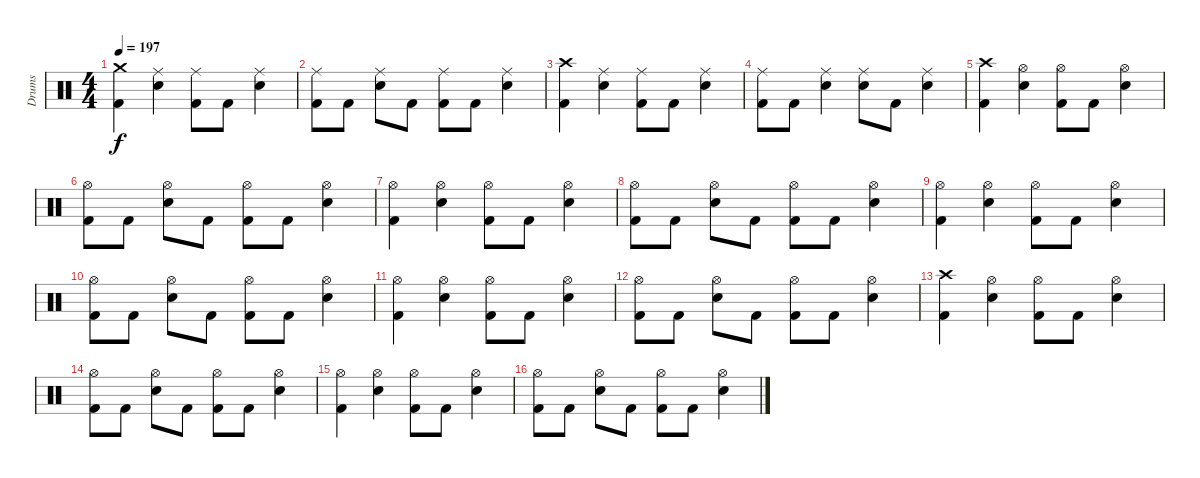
\track ("Drums" "Drums") {instrument percussion}
\staff {score}
\articulation defaults
\ts (4 4)
\tempo 197
\clef neutral
\ks c
("Crash medium (hit)" "Kick (hit) 2").4{dy f} ("Ride (middle)" "Electric Snare (hit)").4 ("Ride (middle)" "Kick (hit) 2").8 "Kick (hit) 2".8 ("Ride (middle)" "Electric Snare (hit)").4 |
("Ride (middle)" "Kick (hit) 2").8 "Kick (hit) 2".8 ("Ride (middle)" "Electric Snare (hit)").8 "Kick (hit) 2".8 ("Ride (middle)" "Kick (hit) 2").8 "Kick (hit) 2".8 ("Ride (middle)" "Electric Snare (hit)").4 |
("Crash high (hit)" "Kick (hit) 2").4 ("Ride (middle)" "Electric Snare (hit)").4 ("Ride (middle)" "Kick (hit) 2").8 "Kick (hit) 2".8 ("Ride (middle)" "Electric Snare (hit)").4 |
("Ride (middle)" "Kick (hit) 2").8 "Kick (hit) 2".8 ("Ride (middle)" "Electric Snare (hit)").4 ("Ride (middle)" "Electric Snare (hit)").8 "Kick (hit) 2".8 ("Ride (middle)" "Electric Snare (hit)").4 |
("Crash high (hit)" "Kick (hit) 2").4 ("Hi-Hat (open)" "Electric Snare (hit)").4 ("Hi-Hat (open)" "Kick (hit) 2").8 "Kick (hit) 2".8 ("Hi-Hat (open)" "Electric Snare (hit)").4 |
("Hi-Hat (open)" "Kick (hit) 2").8 "Kick (hit) 2".8 ("Hi-Hat (open)" "Electric Snare (hit)").8 "Kick (hit) 2".8 ("Hi-Hat (open)" "Kick (hit) 2").8 "Kick (hit) 2".8 ("Hi-Hat (open)" "Electric Snare (hit)").4 |
("Hi-Hat (open)" "Kick (hit) 2").4 ("Hi-Hat (open)" "Electric Snare (hit)").4 ("Hi-Hat (open)" "Kick (hit) 2").8 "Kick (hit) 2".8 ("Hi-Hat (open)" "Electric Snare (hit)").4 |
("Hi-Hat (open)" "Kick (hit) 2").8 "Kick (hit) 2".8 ("Hi-Hat (open)" "Electric Snare (hit)").8 "Kick (hit) 2".8 ("Hi-Hat (open)" "Kick (hit) 2").8 "Kick (hit) 2".8 ("Hi-Hat (open)" "Electric Snare (hit)").4 |
("Hi-Hat (open)" "Kick (hit) 2").4 ("Hi-Hat (open)" "Electric Snare (hit)").4 ("Hi-Hat (open)" "Kick (hit) 2").8 "Kick (hit) 2".8 ("Hi-Hat (open)" "Electric Snare (hit)").4 |
("Hi-Hat (open)" "Kick (hit) 2").8 "Kick (hit) 2".8 ("Hi-Hat (open)" "Electric Snare (hit)").8 "Kick (hit) 2".8 ("Hi-Hat (open)" "Kick (hit) 2").8 "Kick (hit) 2".8 ("Hi-Hat (open)" "Electric Snare (hit)").4 |
("Hi-Hat (open)" "Kick (hit) 2").4 ("Hi-Hat (open)" "Electric Snare (hit)").4 ("Hi-Hat (open)" "Kick (hit) 2").8 "Kick (hit) 2".8 ("Hi-Hat (open)" "Electric Snare (hit)").4 |
("Hi-Hat (open)" "Kick (hit) 2").8 "Kick (hit) 2".8 ("Hi-Hat (open)" "Electric Snare (hit)").8 "Kick (hit) 2".8 ("Hi-Hat (open)" "Kick (hit) 2").8 "Kick (hit) 2".8 ("Hi-Hat (open)" "Electric Snare (hit)").4 |
("Crash high (hit)" "Kick (hit) 2").4 ("Hi-Hat (open)" "Electric Snare (hit)").4 ("Hi-Hat (open)" "Kick (hit) 2").8 "Kick (hit) 2".8 ("Hi-Hat (open)" "Electric Snare (hit)").4 |
("Hi-Hat (open)" "Kick (hit) 2").8 "Kick (hit) 2".8 ("Hi-Hat (open)" "Electric Snare (hit)").8 "Kick (hit) 2".8 ("Hi-Hat (open)" "Kick (hit) 2").8 "Kick (hit) 2".8 ("Hi-Hat (open)" "Electric Snare (hit)").4 |
("Hi-Hat (open)" "Kick (hit) 2").4 ("Hi-Hat (open)" "Electric Snare (hit)").4 ("Hi-Hat (open)" "Kick (hit) 2").8 "Kick (hit) 2".8 ("Hi-Hat (open)" "Electric Snare (hit)").4 |
("Hi-Hat (open)" "Kick (hit) 2").8 "Kick (hit) 2".8 ("Hi-Hat (open)" "Electric Snare (hit)").8 "Kick (hit) 2".8 ("Hi-Hat (open)" "Kick (hit) 2").8 "Kick (hit) 2".8 ("Hi-Hat (open)" "Electric Snare (hit)").4
